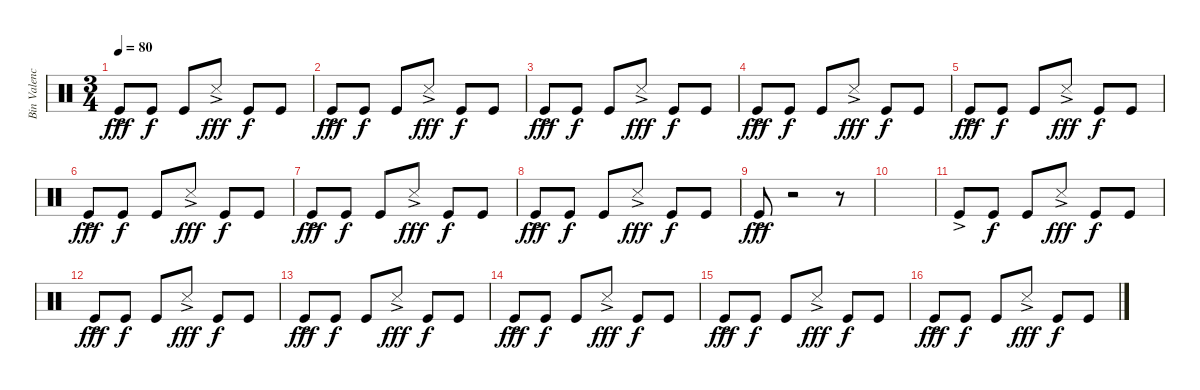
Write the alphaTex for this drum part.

\track ("Bin Valencia- Bombo de Cuero" "Bin Valenc") {instrument percussion}
\staff {score}
\articulation defaults
\ts (3 4)
\tempo 80
\clef neutral
\ks c "Kick (hit)"{ac}.8{dy fff} "Kick (hit)".8{dy f} "Kick (hit)".8 "Snare (side stick) 3"{ac}.8{dy fff} "Kick (hit)".8{dy f} "Kick (hit)".8
|
"Kick (hit)"{ac}.8{dy fff} "Kick (hit)".8{dy f} "Kick (hit)".8 "Snare (side stick) 3"{ac}.8{dy fff} "Kick (hit)".8{dy f} "Kick (hit)".8 |
"Kick (hit)"{ac}.8{dy fff} "Kick (hit)".8{dy f} "Kick (hit)".8 "Snare (side stick) 3"{ac}.8{dy fff} "Kick (hit)".8{dy f} "Kick (hit)".8 |
"Kick (hit)"{ac}.8{dy fff} "Kick (hit)".8{dy f} "Kick (hit)".8 "Snare (side stick) 3"{ac}.8{dy fff} "Kick (hit)".8{dy f} "Kick (hit)".8 |
"Kick (hit)"{ac}.8{dy fff} "Kick (hit)".8{dy f} "Kick (hit)".8 "Snare (side stick) 3"{ac}.8{dy fff} "Kick (hit)".8{dy f} "Kick (hit)".8 |
"Kick (hit)"{ac}.8{dy fff} "Kick (hit)".8{dy f} "Kick (hit)".8 "Snare (side stick) 3"{ac}.8{dy fff} "Kick (hit)".8{dy f} "Kick (hit)".8 |
"Kick (hit)"{ac}.8{dy fff} "Kick (hit)".8{dy f} "Kick (hit)".8 "Snare (side stick) 3"{ac}.8{dy fff} "Kick (hit)".8{dy f} "Kick (hit)".8 |
"Kick (hit)"{ac}.8{dy fff} "Kick (hit)".8{dy f} "Kick (hit)".8 "Snare (side stick) 3"{ac}.8{dy fff} "Kick (hit)".8{dy f} "Kick (hit)".8 |
"Kick (hit)"{ac}.8{dy fff} r.2 r.8 |
|
"Kick (hit)"{ac}.8 "Kick (hit)".8{dy f} "Kick (hit)".8 "Snare (side stick) 3"{ac}.8{dy fff} "Kick (hit)".8{dy f} "Kick (hit)".8 |
"Kick (hit)"{ac}.8{dy fff} "Kick (hit)".8{dy f} "Kick (hit)".8 "Snare (side stick) 3"{ac}.8{dy fff} "Kick (hit)".8{dy f} "Kick (hit)".8 |
"Kick (hit)"{ac}.8{dy fff} "Kick (hit)".8{dy f} "Kick (hit)".8 "Snare (side stick) 3"{ac}.8{dy fff} "Kick (hit)".8{dy f} "Kick (hit)".8 |
"Kick (hit)"{ac}.8{dy fff} "Kick (hit)".8{dy f} "Kick (hit)".8 "Snare (side stick) 3"{ac}.8{dy fff} "Kick (hit)".8{dy f} "Kick (hit)".8 |
"Kick (hit)"{ac}.8{dy fff} "Kick (hit)".8{dy f} "Kick (hit)".8 "Snare (side stick) 3"{ac}.8{dy fff} "Kick (hit)".8{dy f} "Kick (hit)".8 |
"Kick (hit)"{ac}.8{dy fff} "Kick (hit)".8{dy f} "Kick (hit)".8 "Snare (side stick) 3"{ac}.8{dy fff} "Kick (hit)".8{dy f} "Kick (hit)".8
